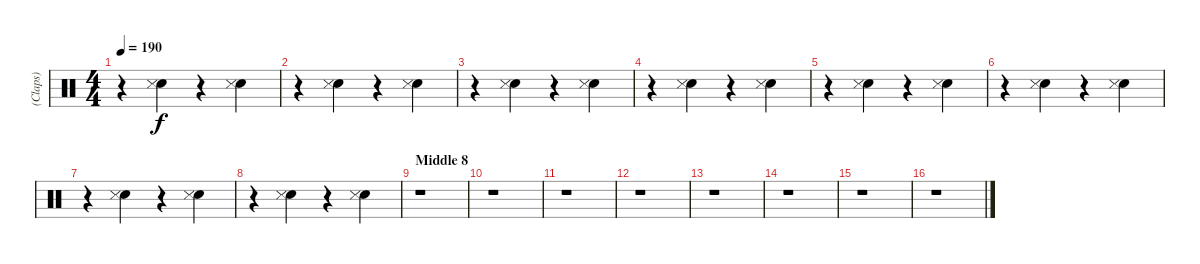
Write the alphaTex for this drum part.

\track ("(Claps)" "(Claps)") {instrument percussion}
\staff {score}
\articulation defaults
\ts (4 4)
\tempo 190
\clef neutral
\ks c
r.4{dy f} ("Hand Clap (hit)" "Snare (side stick) 3").4 r.4 ("Hand Clap (hit)" "Snare (side stick) 3").4 |
r.4 ("Hand Clap (hit)" "Snare (side stick) 3").4 r.4 ("Hand Clap (hit)" "Snare (side stick) 3").4 |
r.4 ("Hand Clap (hit)" "Snare (side stick) 3").4 r.4 ("Hand Clap (hit)" "Snare (side stick) 3").4 |
r.4 ("Hand Clap (hit)" "Snare (side stick) 3").4 r.4 ("Hand Clap (hit)" "Snare (side stick) 3").4 |
r.4 ("Hand Clap (hit)" "Snare (side stick) 3").4 r.4 ("Hand Clap (hit)" "Snare (side stick) 3").4 |
r.4 ("Hand Clap (hit)" "Snare (side stick) 3").4 r.4 ("Hand Clap (hit)" "Snare (side stick) 3").4 |
r.4 ("Hand Clap (hit)" "Snare (side stick) 3").4 r.4 ("Hand Clap (hit)" "Snare (side stick) 3").4 |
r.4 ("Hand Clap (hit)" "Snare (side stick) 3").4 r.4 ("Hand Clap (hit)" "Snare (side stick) 3").4 |
\section ("" "Middle 8")
r.1 |
r.1 |
r.1 |
r.1 |
r.1 |
r.1 |
r.1 |
r.1
